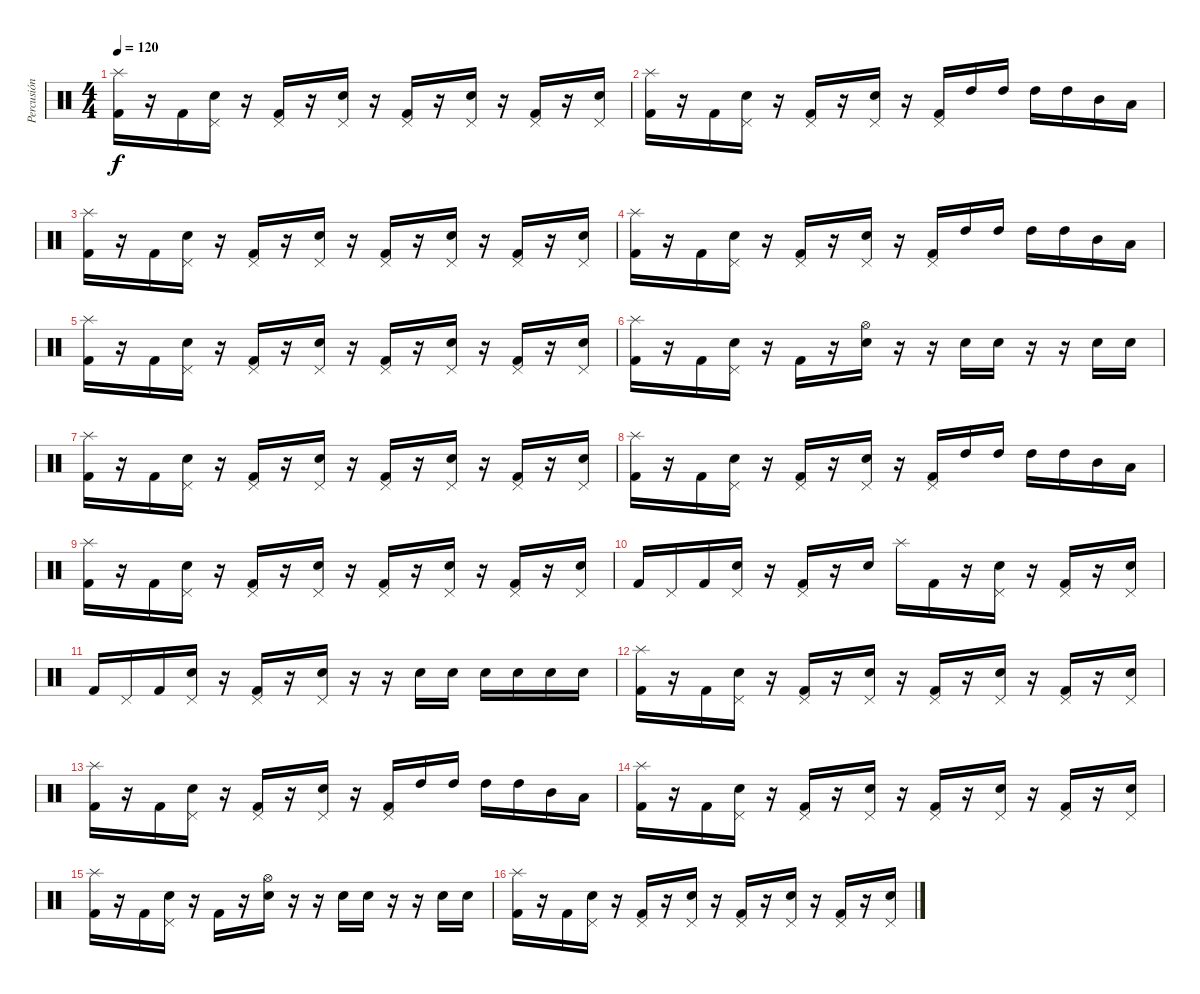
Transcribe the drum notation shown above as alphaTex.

\track ("Percusión" "Percusión") {instrument percussion}
\staff {score}
\articulation defaults
\ts (4 4)
\tempo 120
\clef neutral
\ks c
("Splash (hit)" "Kick (hit) 2").16{dy f} r.16 "Kick (hit) 2".16 ("Pedal Hi-Hat (hit)" "Snare (hit) 2").16 r.16 ("Pedal Hi-Hat (hit)" "Kick (hit) 2").16 r.16 ("Pedal Hi-Hat (hit)" "Snare (hit) 2").16 r.16 ("Pedal Hi-Hat (hit)" "Kick (hit) 2").16 r.16 ("Pedal Hi-Hat (hit)" "Snare (hit) 2").16 r.16 ("Pedal Hi-Hat (hit)" "Kick (hit) 2").16 r.16 ("Pedal Hi-Hat (hit)" "Snare (hit) 2").16 |
("Splash (hit)" "Kick (hit) 2").16 r.16 "Kick (hit) 2".16 ("Pedal Hi-Hat (hit)" "Snare (hit) 2").16 r.16 ("Pedal Hi-Hat (hit)" "Kick (hit) 2").16 r.16 ("Pedal Hi-Hat (hit)" "Snare (hit) 2").16 r.16 ("Pedal Hi-Hat (hit)" "Kick (hit) 2").16 "High Tom (hit)".16 "High Tom (hit)".16 "High Tom (hit)".16 "High Tom (hit)".16 "Mid Tom (hit)".16 "Low Tom (hit)".16 |
("Splash (hit)" "Kick (hit) 2").16 r.16 "Kick (hit) 2".16 ("Pedal Hi-Hat (hit)" "Snare (hit) 2").16 r.16 ("Pedal Hi-Hat (hit)" "Kick (hit) 2").16 r.16 ("Pedal Hi-Hat (hit)" "Snare (hit) 2").16 r.16 ("Pedal Hi-Hat (hit)" "Kick (hit) 2").16 r.16 ("Pedal Hi-Hat (hit)" "Snare (hit) 2").16 r.16 ("Pedal Hi-Hat (hit)" "Kick (hit) 2").16 r.16 ("Pedal Hi-Hat (hit)" "Snare (hit) 2").16 |
("Splash (hit)" "Kick (hit) 2").16 r.16 "Kick (hit) 2".16 ("Pedal Hi-Hat (hit)" "Snare (hit) 2").16 r.16 ("Pedal Hi-Hat (hit)" "Kick (hit) 2").16 r.16 ("Pedal Hi-Hat (hit)" "Snare (hit) 2").16 r.16 ("Pedal Hi-Hat (hit)" "Kick (hit) 2").16 "High Tom (hit)".16 "High Tom (hit)".16 "High Tom (hit)".16 "High Tom (hit)".16 "Mid Tom (hit)".16 "Low Tom (hit)".16 |
("Splash (hit)" "Kick (hit) 2").16 r.16 "Kick (hit) 2".16 ("Pedal Hi-Hat (hit)" "Snare (hit) 2").16 r.16 ("Pedal Hi-Hat (hit)" "Kick (hit) 2").16 r.16 ("Pedal Hi-Hat (hit)" "Snare (hit) 2").16 r.16 ("Pedal Hi-Hat (hit)" "Kick (hit) 2").16 r.16 ("Pedal Hi-Hat (hit)" "Snare (hit) 2").16 r.16 ("Pedal Hi-Hat (hit)" "Kick (hit) 2").16 r.16 ("Pedal Hi-Hat (hit)" "Snare (hit) 2").16 |
("Splash (hit)" "Kick (hit) 2").16 r.16 "Kick (hit) 2".16 ("Pedal Hi-Hat (hit)" "Snare (hit) 2").16 r.16 "Kick (hit) 2".16 r.16 ("Hi-Hat (open)" "Snare (hit) 2").16 r.16 r.16 "Snare (hit) 2".16 "Snare (hit) 2".16 r.16 r.16 "Snare (hit) 2".16 "Snare (hit) 2".16 |
("Splash (hit)" "Kick (hit) 2").16 r.16 "Kick (hit) 2".16 ("Pedal Hi-Hat (hit)" "Snare (hit) 2").16 r.16 ("Pedal Hi-Hat (hit)" "Kick (hit) 2").16 r.16 ("Pedal Hi-Hat (hit)" "Snare (hit) 2").16 r.16 ("Pedal Hi-Hat (hit)" "Kick (hit) 2").16 r.16 ("Pedal Hi-Hat (hit)" "Snare (hit) 2").16 r.16 ("Pedal Hi-Hat (hit)" "Kick (hit) 2").16 r.16 ("Pedal Hi-Hat (hit)" "Snare (hit) 2").16 |
("Splash (hit)" "Kick (hit) 2").16 r.16 "Kick (hit) 2".16 ("Pedal Hi-Hat (hit)" "Snare (hit) 2").16 r.16 ("Pedal Hi-Hat (hit)" "Kick (hit) 2").16 r.16 ("Pedal Hi-Hat (hit)" "Snare (hit) 2").16 r.16 ("Pedal Hi-Hat (hit)" "Kick (hit) 2").16 "High Tom (hit)".16 "High Tom (hit)".16 "High Tom (hit)".16 "High Tom (hit)".16 "Mid Tom (hit)".16 "Low Tom (hit)".16 |
("Splash (hit)" "Kick (hit) 2").16 r.16 "Kick (hit) 2".16 ("Pedal Hi-Hat (hit)" "Snare (hit) 2").16 r.16 ("Pedal Hi-Hat (hit)" "Kick (hit) 2").16 r.16 ("Pedal Hi-Hat (hit)" "Snare (hit) 2").16 r.16 ("Pedal Hi-Hat (hit)" "Kick (hit) 2").16 r.16 ("Pedal Hi-Hat (hit)" "Snare (hit) 2").16 r.16 ("Pedal Hi-Hat (hit)" "Kick (hit) 2").16 r.16 ("Pedal Hi-Hat (hit)" "Snare (hit) 2").16 |
"Kick (hit) 2".16 "Pedal Hi-Hat (hit)".16 "Kick (hit) 2".16 ("Pedal Hi-Hat (hit)" "Snare (hit) 2").16 r.16 ("Pedal Hi-Hat (hit)" "Kick (hit) 2").16 r.16 "Snare (hit) 2".16 "Splash (hit)".16 "Kick (hit) 2".16 r.16 ("Pedal Hi-Hat (hit)" "Snare (hit) 2").16 r.16 ("Pedal Hi-Hat (hit)" "Kick (hit) 2").16 r.16 ("Pedal Hi-Hat (hit)" "Snare (hit) 2").16 |
"Kick (hit) 2".16 "Pedal Hi-Hat (hit)".16 "Kick (hit) 2".16 ("Pedal Hi-Hat (hit)" "Snare (hit) 2").16 r.16 ("Pedal Hi-Hat (hit)" "Kick (hit) 2").16 r.16 ("Pedal Hi-Hat (hit)" "Snare (hit) 2").16 r.16 r.16 "Snare (hit) 2".16 "Snare (hit) 2".16 "Snare (hit) 2".16 "Snare (hit) 2".16 "Snare (hit) 2".16 "Snare (hit) 2".16 |
("Splash (hit)" "Kick (hit) 2").16 r.16 "Kick (hit) 2".16 ("Pedal Hi-Hat (hit)" "Snare (hit) 2").16 r.16 ("Pedal Hi-Hat (hit)" "Kick (hit) 2").16 r.16 ("Pedal Hi-Hat (hit)" "Snare (hit) 2").16 r.16 ("Pedal Hi-Hat (hit)" "Kick (hit) 2").16 r.16 ("Pedal Hi-Hat (hit)" "Snare (hit) 2").16 r.16 ("Pedal Hi-Hat (hit)" "Kick (hit) 2").16 r.16 ("Pedal Hi-Hat (hit)" "Snare (hit) 2").16 |
("Splash (hit)" "Kick (hit) 2").16 r.16 "Kick (hit) 2".16 ("Pedal Hi-Hat (hit)" "Snare (hit) 2").16 r.16 ("Pedal Hi-Hat (hit)" "Kick (hit) 2").16 r.16 ("Pedal Hi-Hat (hit)" "Snare (hit) 2").16 r.16 ("Pedal Hi-Hat (hit)" "Kick (hit) 2").16 "High Tom (hit)".16 "High Tom (hit)".16 "High Tom (hit)".16 "High Tom (hit)".16 "Mid Tom (hit)".16 "Low Tom (hit)".16 |
("Splash (hit)" "Kick (hit) 2").16 r.16 "Kick (hit) 2".16 ("Pedal Hi-Hat (hit)" "Snare (hit) 2").16 r.16 ("Pedal Hi-Hat (hit)" "Kick (hit) 2").16 r.16 ("Pedal Hi-Hat (hit)" "Snare (hit) 2").16 r.16 ("Pedal Hi-Hat (hit)" "Kick (hit) 2").16 r.16 ("Pedal Hi-Hat (hit)" "Snare (hit) 2").16 r.16 ("Pedal Hi-Hat (hit)" "Kick (hit) 2").16 r.16 ("Pedal Hi-Hat (hit)" "Snare (hit) 2").16 |
("Splash (hit)" "Kick (hit) 2").16 r.16 "Kick (hit) 2".16 ("Pedal Hi-Hat (hit)" "Snare (hit) 2").16 r.16 "Kick (hit) 2".16 r.16 ("Hi-Hat (open)" "Snare (hit) 2").16 r.16 r.16 "Snare (hit) 2".16 "Snare (hit) 2".16 r.16 r.16 "Snare (hit) 2".16 "Snare (hit) 2".16 |
("Splash (hit)" "Kick (hit) 2").16 r.16 "Kick (hit) 2".16 ("Pedal Hi-Hat (hit)" "Snare (hit) 2").16 r.16 ("Pedal Hi-Hat (hit)" "Kick (hit) 2").16 r.16 ("Pedal Hi-Hat (hit)" "Snare (hit) 2").16 r.16 ("Pedal Hi-Hat (hit)" "Kick (hit) 2").16 r.16 ("Pedal Hi-Hat (hit)" "Snare (hit) 2").16 r.16 ("Pedal Hi-Hat (hit)" "Kick (hit) 2").16 r.16 ("Pedal Hi-Hat (hit)" "Snare (hit) 2").16
